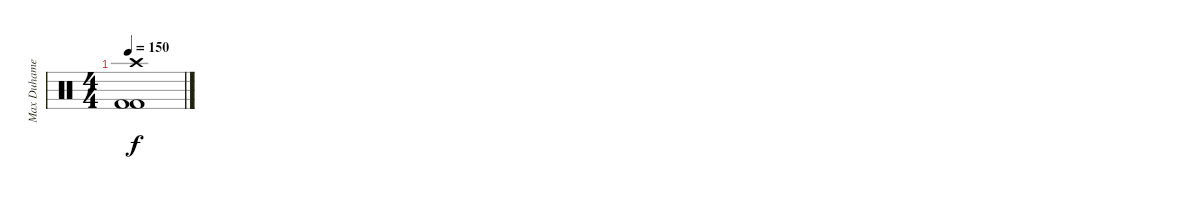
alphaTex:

\track ("Max Duhamel (Drums)" "Max Duhame") {instrument percussion}
\staff {score}
\articulation defaults
\ts (4 4)
\tempo 150
\clef neutral
\ks c
("Crash high (hit)" "Kick (hit) 2" "Kick (hit) 2").1{dy f}
